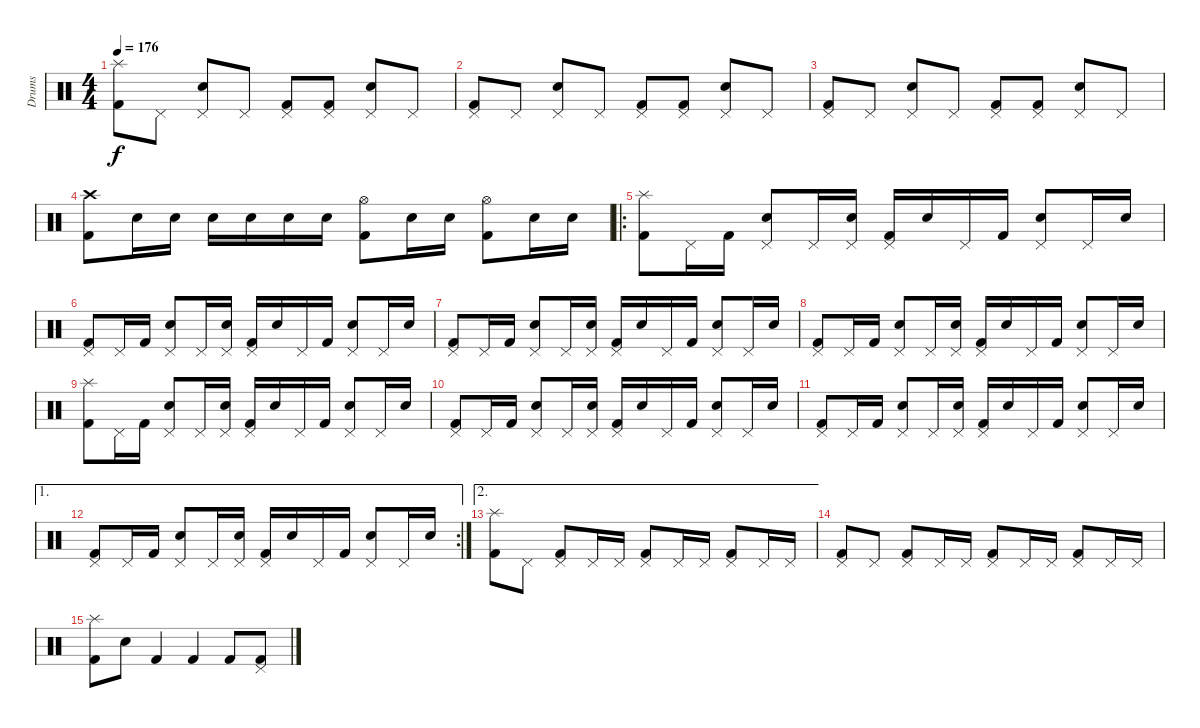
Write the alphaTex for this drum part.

\track ("Drums" "Drums") {instrument percussion}
\staff {score}
\articulation defaults
\ts (4 4)
\tempo 176
\clef neutral
\ks c
("Splash (hit)" "Kick (hit) 2").8{dy f} "Pedal Hi-Hat (hit)".8 ("Snare (hit) 2" "Pedal Hi-Hat (hit)").8 "Pedal Hi-Hat (hit)".8 ("Pedal Hi-Hat (hit)" "Kick (hit) 2").8 ("Kick (hit) 2" "Pedal Hi-Hat (hit)").8 ("Pedal Hi-Hat (hit)" "Snare (hit) 2").8 "Pedal Hi-Hat (hit)".8 |
("Pedal Hi-Hat (hit)" "Kick (hit) 2").8 "Pedal Hi-Hat (hit)".8 ("Snare (hit) 2" "Pedal Hi-Hat (hit)").8 "Pedal Hi-Hat (hit)".8 ("Pedal Hi-Hat (hit)" "Kick (hit) 2").8 ("Kick (hit) 2" "Pedal Hi-Hat (hit)").8 ("Pedal Hi-Hat (hit)" "Snare (hit) 2").8 "Pedal Hi-Hat (hit)".8 |
("Pedal Hi-Hat (hit)" "Kick (hit) 2").8 "Pedal Hi-Hat (hit)".8 ("Snare (hit) 2" "Pedal Hi-Hat (hit)").8 "Pedal Hi-Hat (hit)".8 ("Pedal Hi-Hat (hit)" "Kick (hit) 2").8 ("Kick (hit) 2" "Pedal Hi-Hat (hit)").8 ("Pedal Hi-Hat (hit)" "Snare (hit) 2").8 "Pedal Hi-Hat (hit)".8 |
("Crash high (hit)" "Kick (hit) 2").8 "Snare (hit) 2".16 "Snare (hit) 2".16 "Snare (hit) 2".16 "Snare (hit) 2".16 "Snare (hit) 2".16 "Snare (hit) 2".16 ("Hi-Hat (open)" "Kick (hit) 2").8 "Snare (hit) 2".16 "Snare (hit) 2".16 ("Hi-Hat (open)" "Kick (hit) 2").8 "Snare (hit) 2".16 "Snare (hit) 2".16 |
\ro
("Splash (hit)" "Kick (hit) 2").8 "Pedal Hi-Hat (hit)".16 "Kick (hit) 2".16 ("Pedal Hi-Hat (hit)" "Snare (hit) 2").8 "Pedal Hi-Hat (hit)".16 ("Pedal Hi-Hat (hit)" "Snare (hit) 2").16 ("Pedal Hi-Hat (hit)" "Kick (hit) 2").16 "Snare (hit) 2".16 "Pedal Hi-Hat (hit)".16 "Kick (hit) 2".16 ("Pedal Hi-Hat (hit)" "Snare (hit) 2").8 "Pedal Hi-Hat (hit)".16 "Snare (hit) 2".16 |
("Pedal Hi-Hat (hit)" "Kick (hit) 2").8 "Pedal Hi-Hat (hit)".16 "Kick (hit) 2".16 ("Pedal Hi-Hat (hit)" "Snare (hit) 2").8 "Pedal Hi-Hat (hit)".16 ("Pedal Hi-Hat (hit)" "Snare (hit) 2").16 ("Pedal Hi-Hat (hit)" "Kick (hit) 2").16 "Snare (hit) 2".16 "Pedal Hi-Hat (hit)".16 "Kick (hit) 2".16 ("Pedal Hi-Hat (hit)" "Snare (hit) 2").8 "Pedal Hi-Hat (hit)".16 "Snare (hit) 2".16 |
("Pedal Hi-Hat (hit)" "Kick (hit) 2").8 "Pedal Hi-Hat (hit)".16 "Kick (hit) 2".16 ("Pedal Hi-Hat (hit)" "Snare (hit) 2").8 "Pedal Hi-Hat (hit)".16 ("Pedal Hi-Hat (hit)" "Snare (hit) 2").16 ("Pedal Hi-Hat (hit)" "Kick (hit) 2").16 "Snare (hit) 2".16 "Pedal Hi-Hat (hit)".16 "Kick (hit) 2".16 ("Pedal Hi-Hat (hit)" "Snare (hit) 2").8 "Pedal Hi-Hat (hit)".16 "Snare (hit) 2".16 |
("Pedal Hi-Hat (hit)" "Kick (hit) 2").8 "Pedal Hi-Hat (hit)".16 "Kick (hit) 2".16 ("Pedal Hi-Hat (hit)" "Snare (hit) 2").8 "Pedal Hi-Hat (hit)".16 ("Pedal Hi-Hat (hit)" "Snare (hit) 2").16 ("Pedal Hi-Hat (hit)" "Kick (hit) 2").16 "Snare (hit) 2".16 "Pedal Hi-Hat (hit)".16 "Kick (hit) 2".16 ("Pedal Hi-Hat (hit)" "Snare (hit) 2").8 "Pedal Hi-Hat (hit)".16 "Snare (hit) 2".16 |
("Splash (hit)" "Kick (hit) 2").8 "Pedal Hi-Hat (hit)".16 "Kick (hit) 2".16 ("Pedal Hi-Hat (hit)" "Snare (hit) 2").8 "Pedal Hi-Hat (hit)".16 ("Pedal Hi-Hat (hit)" "Snare (hit) 2").16 ("Pedal Hi-Hat (hit)" "Kick (hit) 2").16 "Snare (hit) 2".16 "Pedal Hi-Hat (hit)".16 "Kick (hit) 2".16 ("Pedal Hi-Hat (hit)" "Snare (hit) 2").8 "Pedal Hi-Hat (hit)".16 "Snare (hit) 2".16 |
("Pedal Hi-Hat (hit)" "Kick (hit) 2").8 "Pedal Hi-Hat (hit)".16 "Kick (hit) 2".16 ("Pedal Hi-Hat (hit)" "Snare (hit) 2").8 "Pedal Hi-Hat (hit)".16 ("Pedal Hi-Hat (hit)" "Snare (hit) 2").16 ("Pedal Hi-Hat (hit)" "Kick (hit) 2").16 "Snare (hit) 2".16 "Pedal Hi-Hat (hit)".16 "Kick (hit) 2".16 ("Pedal Hi-Hat (hit)" "Snare (hit) 2").8 "Pedal Hi-Hat (hit)".16 "Snare (hit) 2".16 |
("Pedal Hi-Hat (hit)" "Kick (hit) 2").8 "Pedal Hi-Hat (hit)".16 "Kick (hit) 2".16 ("Pedal Hi-Hat (hit)" "Snare (hit) 2").8 "Pedal Hi-Hat (hit)".16 ("Pedal Hi-Hat (hit)" "Snare (hit) 2").16 ("Pedal Hi-Hat (hit)" "Kick (hit) 2").16 "Snare (hit) 2".16 "Pedal Hi-Hat (hit)".16 "Kick (hit) 2".16 ("Pedal Hi-Hat (hit)" "Snare (hit) 2").8 "Pedal Hi-Hat (hit)".16 "Snare (hit) 2".16 |
\ae 1
\rc 2
("Pedal Hi-Hat (hit)" "Kick (hit) 2").8 "Pedal Hi-Hat (hit)".16 "Kick (hit) 2".16 ("Pedal Hi-Hat (hit)" "Snare (hit) 2").8 "Pedal Hi-Hat (hit)".16 ("Pedal Hi-Hat (hit)" "Snare (hit) 2").16 ("Pedal Hi-Hat (hit)" "Kick (hit) 2").16 "Snare (hit) 2".16 "Pedal Hi-Hat (hit)".16 "Kick (hit) 2".16 ("Pedal Hi-Hat (hit)" "Snare (hit) 2").8 "Pedal Hi-Hat (hit)".16 "Snare (hit) 2".16 |
\ae 2
("Splash (hit)" "Kick (hit) 2").8 "Pedal Hi-Hat (hit)".8 ("Kick (hit) 2" "Pedal Hi-Hat (hit)").8 "Pedal Hi-Hat (hit)".16 "Pedal Hi-Hat (hit)".16 ("Kick (hit) 2" "Pedal Hi-Hat (hit)").8 "Pedal Hi-Hat (hit)".16 "Pedal Hi-Hat (hit)".16 ("Kick (hit) 2" "Pedal Hi-Hat (hit)").8 "Pedal Hi-Hat (hit)".16 "Pedal Hi-Hat (hit)".16 |
("Pedal Hi-Hat (hit)" "Kick (hit) 2").8 "Pedal Hi-Hat (hit)".8 ("Kick (hit) 2" "Pedal Hi-Hat (hit)").8 "Pedal Hi-Hat (hit)".16 "Pedal Hi-Hat (hit)".16 ("Kick (hit) 2" "Pedal Hi-Hat (hit)").8 "Pedal Hi-Hat (hit)".16 "Pedal Hi-Hat (hit)".16 ("Kick (hit) 2" "Pedal Hi-Hat (hit)").8 "Pedal Hi-Hat (hit)".16 "Pedal Hi-Hat (hit)".16 |
("Splash (hit)" "Kick (hit) 2").8 "Snare (hit) 2".8 "Kick (hit) 2".4 "Kick (hit) 2".4 "Kick (hit) 2".8 ("Pedal Hi-Hat (hit)" "Kick (hit) 2").8
